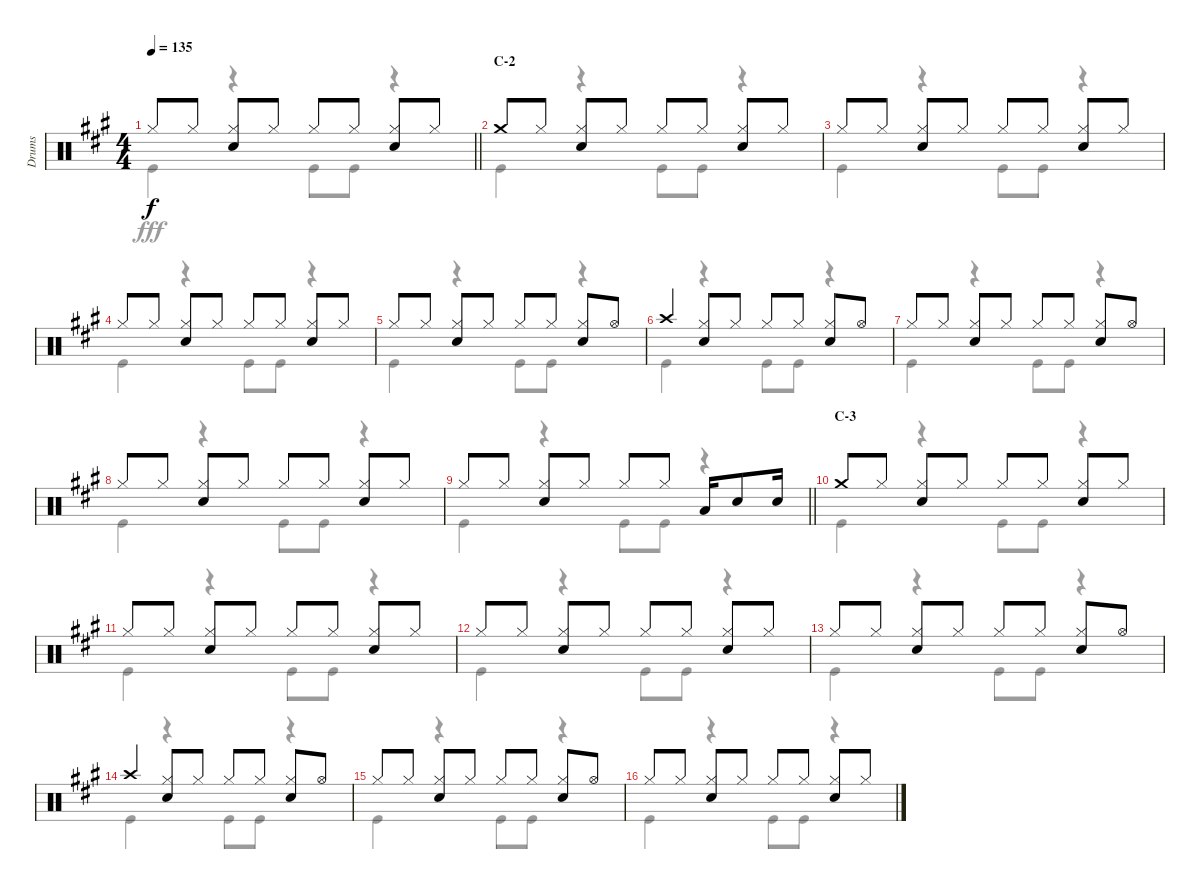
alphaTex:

\track ("Drums" "Drums") {instrument percussion}
\staff {score}
\articulation defaults
\voice
\ts (4 4)
\tempo 135
\clef neutral
\barLineRight lightlight
\ks a "Hi-Hat (closed)".8{dy f} "Hi-Hat (closed)".8
("Hi-Hat (closed)" "Snare (hit) 2").8 "Hi-Hat (closed)".8 "Hi-Hat (closed)".8 "Hi-Hat (closed)".8 ("Hi-Hat (closed)" "Snare (hit) 2").8 "Hi-Hat (closed)".8 |
\section ("" "C-2")
"Crash medium (hit)".8 "Hi-Hat (closed)".8 ("Hi-Hat (closed)" "Snare (hit) 2").8 "Hi-Hat (closed)".8 "Hi-Hat (closed)".8 "Hi-Hat (closed)".8 ("Hi-Hat (closed)" "Snare (hit) 2").8 "Hi-Hat (closed)".8 |
"Hi-Hat (closed)".8 "Hi-Hat (closed)".8 ("Hi-Hat (closed)" "Snare (hit) 2").8 "Hi-Hat (closed)".8 "Hi-Hat (closed)".8 "Hi-Hat (closed)".8 ("Hi-Hat (closed)" "Snare (hit) 2").8 "Hi-Hat (closed)".8 |
"Hi-Hat (closed)".8 "Hi-Hat (closed)".8 ("Hi-Hat (closed)" "Snare (hit) 2").8 "Hi-Hat (closed)".8 "Hi-Hat (closed)".8 "Hi-Hat (closed)".8 ("Hi-Hat (closed)" "Snare (hit) 2").8 "Hi-Hat (closed)".8 |
"Hi-Hat (closed)".8 "Hi-Hat (closed)".8 ("Hi-Hat (closed)" "Snare (hit) 2").8 "Hi-Hat (closed)".8 "Hi-Hat (closed)".8 "Hi-Hat (closed)".8 ("Hi-Hat (closed)" "Snare (hit) 2").8 "Hi-Hat (open)".8 |
"Crash high (hit)".4 ("Hi-Hat (closed)" "Snare (hit) 2").8 "Hi-Hat (closed)".8 "Hi-Hat (closed)".8 "Hi-Hat (closed)".8 ("Hi-Hat (closed)" "Snare (hit) 2").8 "Hi-Hat (open)".8 |
"Hi-Hat (closed)".8 "Hi-Hat (closed)".8 ("Hi-Hat (closed)" "Snare (hit) 2").8 "Hi-Hat (closed)".8 "Hi-Hat (closed)".8 "Hi-Hat (closed)".8 ("Hi-Hat (closed)" "Snare (hit) 2").8 "Hi-Hat (open)".8 |
"Hi-Hat (closed)".8 "Hi-Hat (closed)".8 ("Hi-Hat (closed)" "Snare (hit) 2").8 "Hi-Hat (closed)".8 "Hi-Hat (closed)".8 "Hi-Hat (closed)".8 ("Hi-Hat (closed)" "Snare (hit) 2").8 "Hi-Hat (closed)".8 |
\barLineRight lightlight "Hi-Hat (closed)".8 "Hi-Hat (closed)".8
("Hi-Hat (closed)" "Snare (hit) 2").8 "Hi-Hat (closed)".8 "Hi-Hat (closed)".8 "Hi-Hat (closed)".8 "Low Tom (hit)".16 "Snare (hit) 2".8 "Snare (hit) 2".16 |
\section ("" "C-3")
"Crash medium (hit)".8 "Hi-Hat (closed)".8 ("Hi-Hat (closed)" "Snare (hit) 2").8 "Hi-Hat (closed)".8 "Hi-Hat (closed)".8 "Hi-Hat (closed)".8 ("Hi-Hat (closed)" "Snare (hit) 2").8 "Hi-Hat (closed)".8 |
"Hi-Hat (closed)".8 "Hi-Hat (closed)".8 ("Hi-Hat (closed)" "Snare (hit) 2").8 "Hi-Hat (closed)".8 "Hi-Hat (closed)".8 "Hi-Hat (closed)".8 ("Hi-Hat (closed)" "Snare (hit) 2").8 "Hi-Hat (closed)".8 |
"Hi-Hat (closed)".8 "Hi-Hat (closed)".8 ("Hi-Hat (closed)" "Snare (hit) 2").8 "Hi-Hat (closed)".8 "Hi-Hat (closed)".8 "Hi-Hat (closed)".8 ("Hi-Hat (closed)" "Snare (hit) 2").8 "Hi-Hat (closed)".8 |
"Hi-Hat (closed)".8 "Hi-Hat (closed)".8 ("Hi-Hat (closed)" "Snare (hit) 2").8 "Hi-Hat (closed)".8 "Hi-Hat (closed)".8 "Hi-Hat (closed)".8 ("Hi-Hat (closed)" "Snare (hit) 2").8 "Hi-Hat (open)".8 |
"Crash high (hit)".4 ("Hi-Hat (closed)" "Snare (hit) 2").8 "Hi-Hat (closed)".8 "Hi-Hat (closed)".8 "Hi-Hat (closed)".8 ("Hi-Hat (closed)" "Snare (hit) 2").8 "Hi-Hat (open)".8 |
"Hi-Hat (closed)".8 "Hi-Hat (closed)".8 ("Hi-Hat (closed)" "Snare (hit) 2").8 "Hi-Hat (closed)".8 "Hi-Hat (closed)".8 "Hi-Hat (closed)".8 ("Hi-Hat (closed)" "Snare (hit) 2").8 "Hi-Hat (open)".8 |
"Hi-Hat (closed)".8 "Hi-Hat (closed)".8 ("Hi-Hat (closed)" "Snare (hit) 2").8 "Hi-Hat (closed)".8 "Hi-Hat (closed)".8 "Hi-Hat (closed)".8 ("Hi-Hat (closed)" "Snare (hit) 2").8 "Hi-Hat (closed)".8
\voice
\clef neutral
\ottava regular
\simile none
\barLineRight lightlight
\ks a "Kick (hit)".4{dy fff}
r.4 "Kick (hit)".8 "Kick (hit)".8 r.4 |
"Kick (hit)".4 r.4 "Kick (hit)".8 "Kick (hit)".8 r.4 |
"Kick (hit)".4 r.4 "Kick (hit)".8 "Kick (hit)".8 r.4 |
"Kick (hit)".4 r.4 "Kick (hit)".8 "Kick (hit)".8 r.4 |
"Kick (hit)".4 r.4 "Kick (hit)".8 "Kick (hit)".8 r.4 |
"Kick (hit)".4 r.4 "Kick (hit)".8 "Kick (hit)".8 r.4 |
"Kick (hit)".4 r.4 "Kick (hit)".8 "Kick (hit)".8 r.4 |
"Kick (hit)".4 r.4 "Kick (hit)".8 "Kick (hit)".8 r.4 |
\barLineRight lightlight "Kick (hit)".4
r.4 "Kick (hit)".8 "Kick (hit)".8 r.4 |
"Kick (hit)".4 r.4 "Kick (hit)".8 "Kick (hit)".8 r.4 |
"Kick (hit)".4 r.4 "Kick (hit)".8 "Kick (hit)".8 r.4 |
"Kick (hit)".4 r.4 "Kick (hit)".8 "Kick (hit)".8 r.4 |
"Kick (hit)".4 r.4 "Kick (hit)".8 "Kick (hit)".8 r.4 |
"Kick (hit)".4 r.4 "Kick (hit)".8 "Kick (hit)".8 r.4 |
"Kick (hit)".4 r.4 "Kick (hit)".8 "Kick (hit)".8 r.4 |
"Kick (hit)".4 r.4 "Kick (hit)".8 "Kick (hit)".8 r.4
